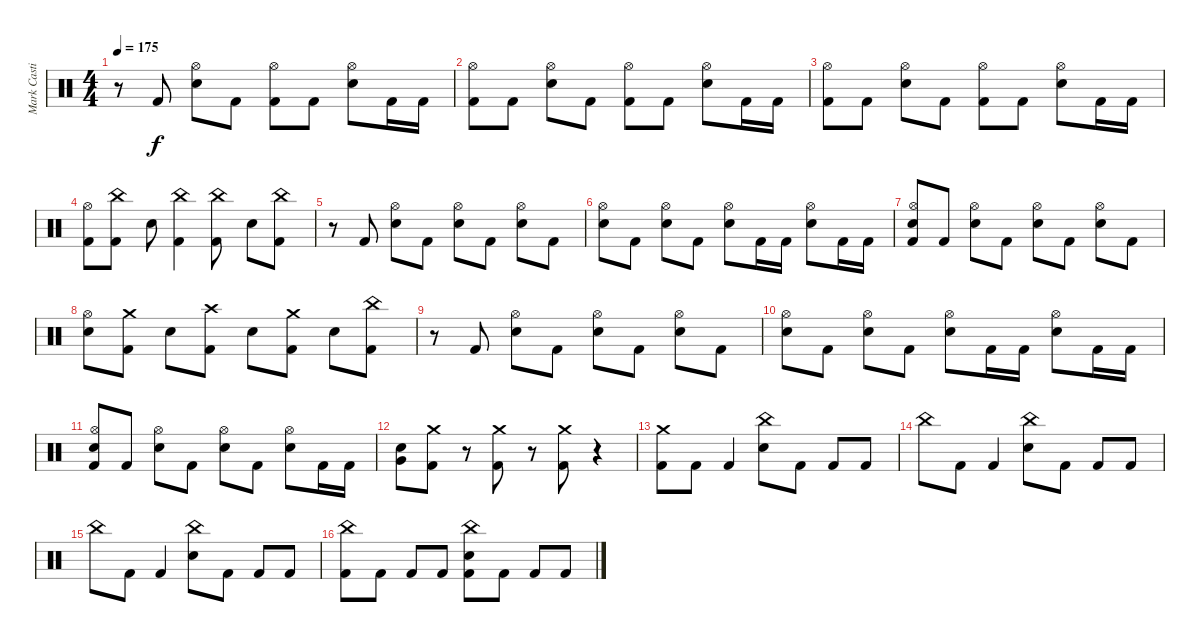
\track ("Mark Castillo" "Mark Casti") {instrument percussion}
\staff {score}
\articulation defaults
\ts (4 4)
\tempo 175
\clef neutral
\ks c
r.8{dy f} "Kick (hit) 2".8 ("Hi-Hat (open)" "Electric Snare (hit)").8 "Kick (hit) 2".8 ("Hi-Hat (open)" "Kick (hit) 2").8 "Kick (hit) 2".8 ("Hi-Hat (open)" "Electric Snare (hit)").8 "Kick (hit) 2".16 "Kick (hit) 2".16 |
("Hi-Hat (open)" "Kick (hit) 2").8 "Kick (hit) 2".8 ("Hi-Hat (open)" "Electric Snare (hit)").8 "Kick (hit) 2".8 ("Hi-Hat (open)" "Kick (hit) 2").8 "Kick (hit) 2".8 ("Hi-Hat (open)" "Electric Snare (hit)").8 "Kick (hit) 2".16 "Kick (hit) 2".16 |
("Hi-Hat (open)" "Kick (hit) 2").8 "Kick (hit) 2".8 ("Hi-Hat (open)" "Electric Snare (hit)").8 "Kick (hit) 2".8 ("Hi-Hat (open)" "Kick (hit) 2").8 "Kick (hit) 2".8 ("Hi-Hat (open)" "Electric Snare (hit)").8 "Kick (hit) 2".16 "Kick (hit) 2".16 |
("Hi-Hat (open)" "Kick (hit) 2").8 ("China (hit)" "Kick (hit) 2").8 "Electric Snare (hit)".8 ("China (hit)" "Kick (hit) 2").4 ("China (hit)" "Kick (hit) 2").8 "Electric Snare (hit)".8 ("China (hit)" "Kick (hit) 2").8 |
r.8 "Kick (hit) 2".8 ("Hi-Hat (open)" "Electric Snare (hit)").8 "Kick (hit) 2".8 ("Hi-Hat (open)" "Electric Snare (hit)").8 "Kick (hit) 2".8 ("Hi-Hat (open)" "Electric Snare (hit)").8 "Kick (hit) 2".8 |
("Hi-Hat (open)" "Electric Snare (hit)").8 "Kick (hit) 2".8 ("Hi-Hat (open)" "Electric Snare (hit)").8 "Kick (hit) 2".8 ("Hi-Hat (open)" "Electric Snare (hit)").8 "Kick (hit) 2".16 "Kick (hit) 2".16 ("Hi-Hat (open)" "Electric Snare (hit)").8 "Kick (hit) 2".16 "Kick (hit) 2".16 |
("Hi-Hat (open)" "Electric Snare (hit)" "Kick (hit) 2").8 "Kick (hit) 2".8 ("Hi-Hat (open)" "Electric Snare (hit)").8 "Kick (hit) 2".8 ("Hi-Hat (open)" "Electric Snare (hit)").8 "Kick (hit) 2".8 ("Hi-Hat (open)" "Electric Snare (hit)").8 "Kick (hit) 2".8 |
("Hi-Hat (open)" "Electric Snare (hit)").8 ("Crash medium (hit)" "Kick (hit) 2").8 "Electric Snare (hit)".8 ("Crash high (hit)" "Kick (hit) 2").8 "Electric Snare (hit)".8 ("Crash medium (hit)" "Kick (hit) 2").8 "Electric Snare (hit)".8 ("China (hit)" "Kick (hit) 2").8 |
r.8 "Kick (hit) 2".8 ("Hi-Hat (open)" "Electric Snare (hit)").8 "Kick (hit) 2".8 ("Hi-Hat (open)" "Electric Snare (hit)").8 "Kick (hit) 2".8 ("Hi-Hat (open)" "Electric Snare (hit)").8 "Kick (hit) 2".8 |
("Hi-Hat (open)" "Electric Snare (hit)").8 "Kick (hit) 2".8 ("Hi-Hat (open)" "Electric Snare (hit)").8 "Kick (hit) 2".8 ("Hi-Hat (open)" "Electric Snare (hit)").8 "Kick (hit) 2".16 "Kick (hit) 2".16 ("Hi-Hat (open)" "Electric Snare (hit)").8 "Kick (hit) 2".16 "Kick (hit) 2".16 |
("Hi-Hat (open)" "Electric Snare (hit)" "Kick (hit) 2").8 "Kick (hit) 2".8 ("Hi-Hat (open)" "Electric Snare (hit)").8 "Kick (hit) 2".8 ("Hi-Hat (open)" "Electric Snare (hit)").8 "Kick (hit) 2".8 ("Hi-Hat (open)" "Electric Snare (hit)").8 "Kick (hit) 2".16 "Kick (hit) 2".16 |
("Very Low Tom (hit)" "Electric Snare (hit)").8 ("Crash medium (hit)" "Kick (hit) 2").8 r.8{volume 0} ("Crash medium (hit)" "Kick (hit) 2").8{volume 13} r.8{volume 0} ("Crash medium (hit)" "Kick (hit) 2").8{volume 13} r.4{volume 0} |
("Crash medium (hit)" "Kick (hit) 2").8{volume 13} "Kick (hit) 2".8 "Kick (hit) 2".4 ("China (hit)" "Electric Snare (hit)").8 "Kick (hit) 2".8 "Kick (hit) 2".8 "Kick (hit) 2".8 |
"China (hit)".8 "Kick (hit) 2".8 "Kick (hit) 2".4 ("China (hit)" "Electric Snare (hit)").8 "Kick (hit) 2".8 "Kick (hit) 2".8 "Kick (hit) 2".8 |
"China (hit)".8 "Kick (hit) 2".8 "Kick (hit) 2".4 ("China (hit)" "Electric Snare (hit)").8 "Kick (hit) 2".8 "Kick (hit) 2".8 "Kick (hit) 2".8 |
("China (hit)" "Kick (hit) 2").8 "Kick (hit) 2".8 "Kick (hit) 2".8 "Kick (hit) 2".8 ("China (hit)" "Electric Snare (hit)" "Kick (hit) 2").8 "Kick (hit) 2".8 "Kick (hit) 2".8 "Kick (hit) 2".8
